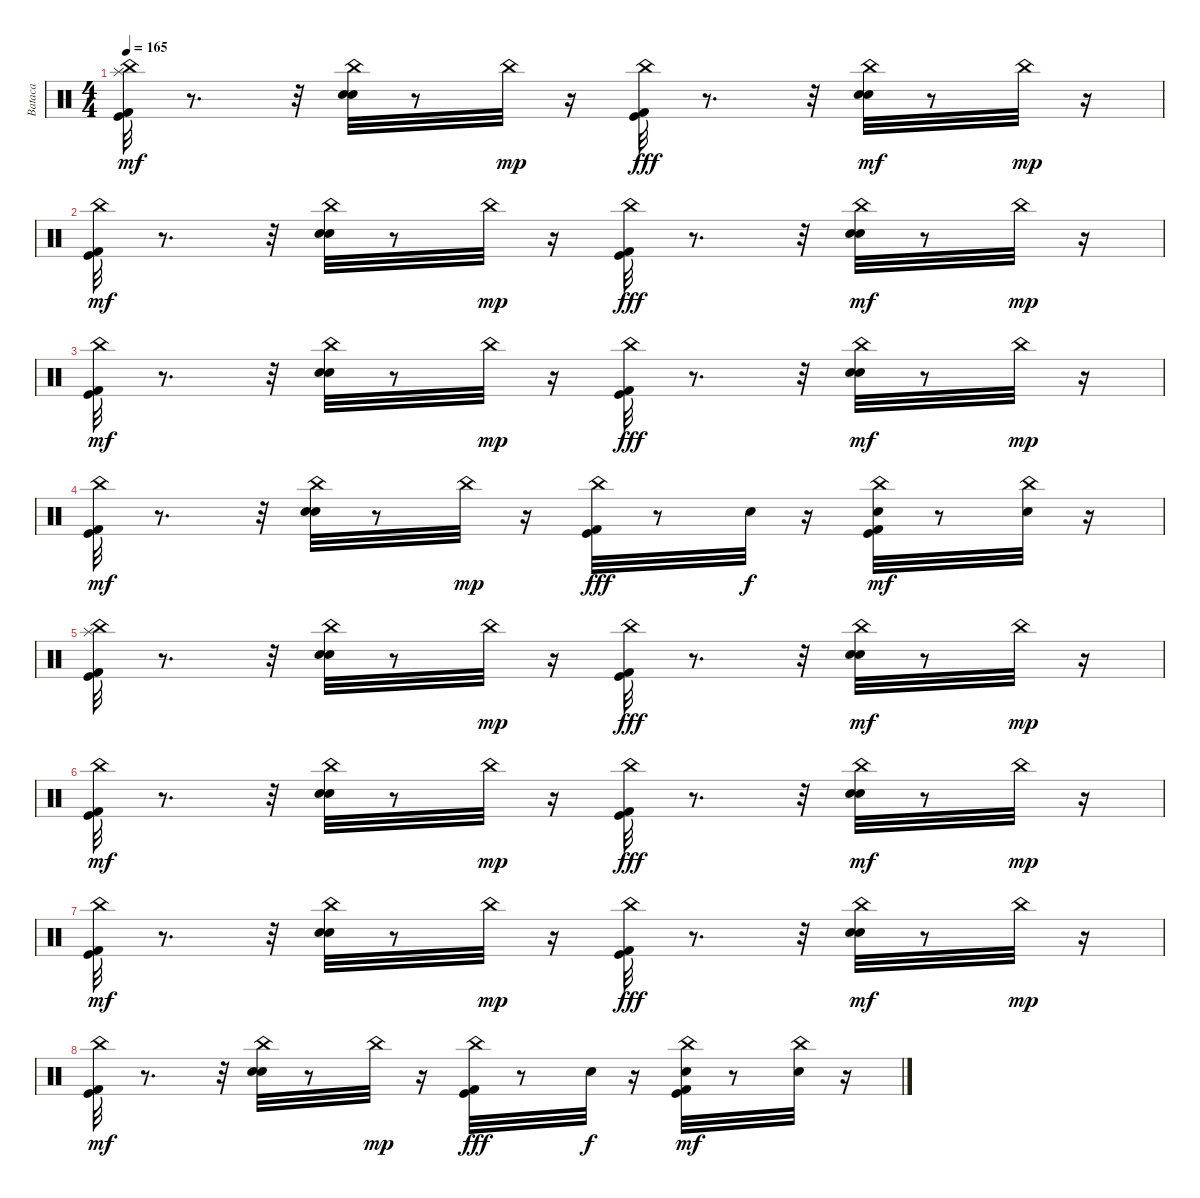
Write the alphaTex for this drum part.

\track ("Bataca" "Bataca") {instrument percussion}
\staff {score}
\articulation defaults
\ts (4 4)
\tempo 165
\clef neutral
\ks c
("Kick (hit) 2" "Kick (hit)" "Splash (hit)" "China (hit)").32{dy mf} r.8{d} r.32 ("Snare (hit) 2" "China (hit)" "Hand Clap (hit)").32 r.8 "China (hit)".32{dy mp} r.16 ("China (hit)" "Kick (hit) 2" "Kick (hit)").32{dy fff} r.8{d} r.32 ("Snare (hit) 2" "China (hit)" "Hand Clap (hit)").32{dy mf} r.8 "China (hit)".32{dy mp} r.16 |
("Kick (hit) 2" "Kick (hit)" "China (hit)").32{dy mf} r.8{d} r.32 ("Snare (hit) 2" "China (hit)" "Hand Clap (hit)").32 r.8 "China (hit)".32{dy mp} r.16 ("China (hit)" "Kick (hit) 2" "Kick (hit)").32{dy fff} r.8{d} r.32 ("Snare (hit) 2" "China (hit)" "Hand Clap (hit)").32{dy mf} r.8 "China (hit)".32{dy mp} r.16 |
("Kick (hit) 2" "Kick (hit)" "China (hit)").32{dy mf} r.8{d} r.32 ("Snare (hit) 2" "China (hit)" "Hand Clap (hit)").32 r.8 "China (hit)".32{dy mp} r.16 ("China (hit)" "Kick (hit) 2" "Kick (hit)").32{dy fff} r.8{d} r.32 ("Snare (hit) 2" "China (hit)" "Hand Clap (hit)").32{dy mf} r.8 "China (hit)".32{dy mp} r.16 |
("Kick (hit) 2" "Kick (hit)" "China (hit)").32{dy mf} r.8{d} r.32 ("Snare (hit) 2" "China (hit)" "Hand Clap (hit)").32 r.8 "China (hit)".32{dy mp} r.16 ("China (hit)" "Kick (hit) 2" "Kick (hit)").32{dy fff} r.8 "Snare (hit) 2".32{dy f} r.16 ("China (hit)" "Kick (hit) 2" "Kick (hit)" "Hand Clap (hit)").32{dy mf} r.8 ("China (hit)" "Snare (hit) 2").32 r.16 |
("Kick (hit) 2" "Kick (hit)" "Splash (hit)" "China (hit)").32 r.8{d} r.32 ("Snare (hit) 2" "China (hit)" "Hand Clap (hit)").32 r.8 "China (hit)".32{dy mp} r.16 ("China (hit)" "Kick (hit) 2" "Kick (hit)").32{dy fff} r.8{d} r.32 ("Snare (hit) 2" "China (hit)" "Hand Clap (hit)").32{dy mf} r.8 "China (hit)".32{dy mp} r.16 |
("Kick (hit) 2" "Kick (hit)" "China (hit)").32{dy mf} r.8{d} r.32 ("Snare (hit) 2" "China (hit)" "Hand Clap (hit)").32 r.8 "China (hit)".32{dy mp} r.16 ("China (hit)" "Kick (hit) 2" "Kick (hit)").32{dy fff} r.8{d} r.32 ("Snare (hit) 2" "China (hit)" "Hand Clap (hit)").32{dy mf} r.8 "China (hit)".32{dy mp} r.16 |
("Kick (hit) 2" "Kick (hit)" "China (hit)").32{dy mf} r.8{d} r.32 ("Snare (hit) 2" "China (hit)" "Hand Clap (hit)").32 r.8 "China (hit)".32{dy mp} r.16 ("China (hit)" "Kick (hit) 2" "Kick (hit)").32{dy fff} r.8{d} r.32 ("Snare (hit) 2" "China (hit)" "Hand Clap (hit)").32{dy mf} r.8 "China (hit)".32{dy mp} r.16 |
("Kick (hit) 2" "Kick (hit)" "China (hit)").32{dy mf} r.8{d} r.32 ("Snare (hit) 2" "China (hit)" "Hand Clap (hit)").32 r.8 "China (hit)".32{dy mp} r.16 ("China (hit)" "Kick (hit) 2" "Kick (hit)").32{dy fff} r.8 "Snare (hit) 2".32{dy f} r.16 ("China (hit)" "Kick (hit) 2" "Kick (hit)" "Hand Clap (hit)").32{dy mf} r.8 ("China (hit)" "Snare (hit) 2").32 r.16
